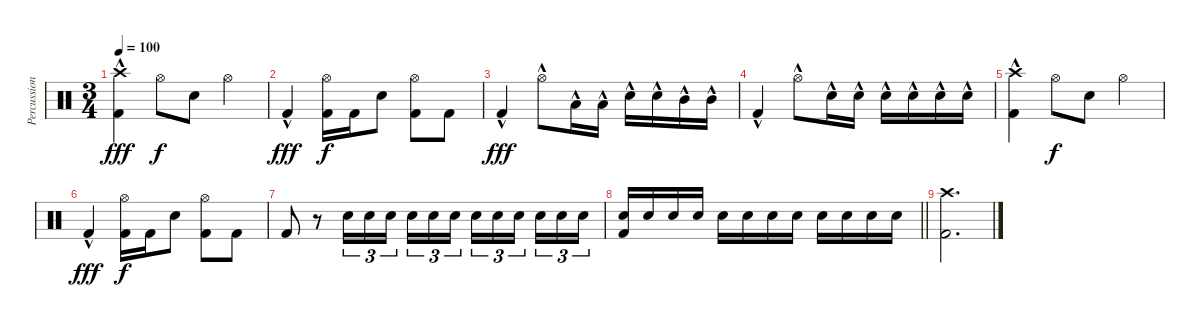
\track ("Percussion" "Percussion") {instrument percussion}
\staff {score}
\articulation defaults
\ts (3 4)
\tempo 100
\clef neutral
\ks c
("Crash high (hit)" "Kick (hit) 2"{hac}).4{dy fff} "Hi-Hat (open)".8{dy f} "Snare (hit) 2".8 "Hi-Hat (open)".4 |
"Kick (hit) 2"{hac}.4{dy fff} ("Hi-Hat (open)" "Kick (hit) 2").16{dy f} "Kick (hit) 2".16 "Snare (hit) 2".8 ("Hi-Hat (open)" "Kick (hit) 2").8 "Kick (hit) 2".8 |
"Kick (hit) 2"{hac}.4{dy fff} "Hi-Hat (open)"{hac}.8 "Low Tom (hit)"{hac}.16 "Low Tom (hit)"{hac}.16 "Snare (hit) 2"{hac}.16 "Snare (hit) 2"{hac}.16 "Mid Tom (hit)"{hac}.16 "Mid Tom (hit)"{hac}.16 |
"Kick (hit) 2"{hac}.4 "Hi-Hat (open)"{hac}.8 "Snare (hit) 2"{hac}.16 "Snare (hit) 2"{hac}.16 "Snare (hit) 2"{hac}.16 "Snare (hit) 2"{hac}.16 "Snare (hit) 2"{hac}.16 "Snare (hit) 2"{hac}.16 |
("Crash high (hit)" "Kick (hit) 2"{hac}).4 "Hi-Hat (open)".8{dy f} "Snare (hit) 2".8 "Hi-Hat (open)".4 |
"Kick (hit) 2"{hac}.4{dy fff} ("Hi-Hat (open)" "Kick (hit) 2").16{dy f} "Kick (hit) 2".16 "Snare (hit) 2".8 ("Hi-Hat (open)" "Kick (hit) 2").8 "Kick (hit) 2".8 |
"Kick (hit) 2".8 r.8 "Snare (hit) 2".16{tu (3 2)} "Snare (hit) 2".16{tu (3 2)} "Snare (hit) 2".16{tu (3 2) beam splitsecondary} "Snare (hit) 2".16{tu (3 2)} "Snare (hit) 2".16{tu (3 2)} "Snare (hit) 2".16{tu (3 2)} "Snare (hit) 2".16{tu (3 2)} "Snare (hit) 2".16{tu (3 2)} "Snare (hit) 2".16{tu (3 2) beam splitsecondary} "Snare (hit) 2".16{tu (3 2)} "Snare (hit) 2".16{tu (3 2)} "Snare (hit) 2".16{tu (3 2)} |
\barLineRight lightlight
("Snare (hit) 2" "Kick (hit) 2").16 "Snare (hit) 2".16 "Snare (hit) 2".16 "Snare (hit) 2".16 "Snare (hit) 2".16 "Snare (hit) 2".16 "Snare (hit) 2".16 "Snare (hit) 2".16 "Snare (hit) 2".16 "Snare (hit) 2".16 "Snare (hit) 2".16 "Snare (hit) 2".16 |
("Crash high (hit)" "Kick (hit) 2").2{d}
